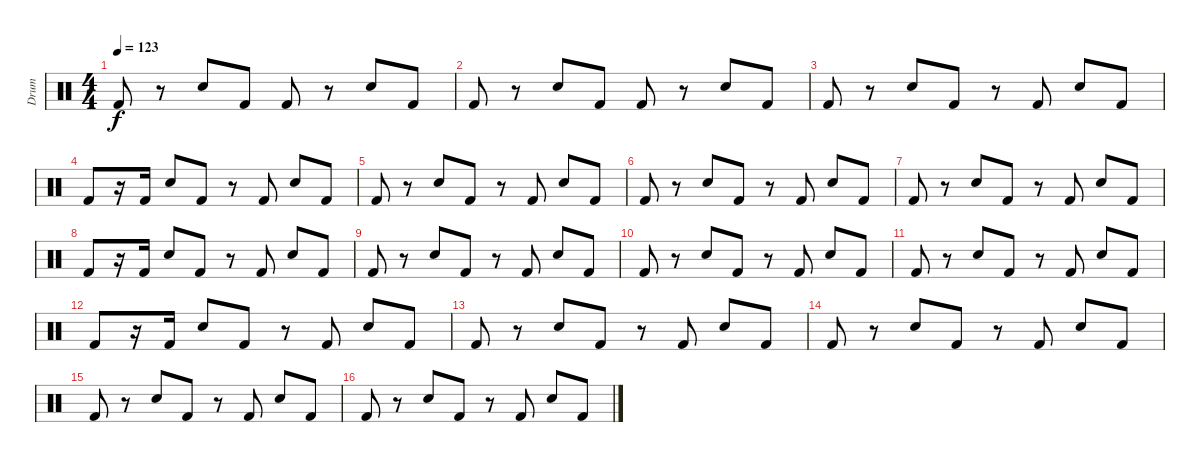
\track ("Drum" "Drum") {instrument percussion}
\staff {score}
\articulation defaults
\ts (4 4)
\tempo 123
\clef neutral
\ks c "Kick (hit) 2".8{dy f}
r.8 "Electric Snare (hit)".8 "Kick (hit) 2".8 "Kick (hit) 2".8 r.8 "Electric Snare (hit)".8 "Kick (hit) 2".8 |
"Kick (hit) 2".8 r.8 "Electric Snare (hit)".8 "Kick (hit) 2".8 "Kick (hit) 2".8 r.8 "Electric Snare (hit)".8 "Kick (hit) 2".8 |
"Kick (hit) 2".8 r.8 "Electric Snare (hit)".8 "Kick (hit) 2".8 r.8 "Kick (hit) 2".8 "Electric Snare (hit)".8 "Kick (hit) 2".8 |
"Kick (hit) 2".8 r.16 "Kick (hit) 2".16 "Electric Snare (hit)".8 "Kick (hit) 2".8 r.8 "Kick (hit) 2".8 "Electric Snare (hit)".8 "Kick (hit) 2".8 |
"Kick (hit) 2".8 r.8 "Electric Snare (hit)".8 "Kick (hit) 2".8 r.8 "Kick (hit) 2".8 "Electric Snare (hit)".8 "Kick (hit) 2".8 |
"Kick (hit) 2".8 r.8 "Electric Snare (hit)".8 "Kick (hit) 2".8 r.8 "Kick (hit) 2".8 "Electric Snare (hit)".8 "Kick (hit) 2".8 |
"Kick (hit) 2".8 r.8 "Electric Snare (hit)".8 "Kick (hit) 2".8 r.8 "Kick (hit) 2".8 "Electric Snare (hit)".8 "Kick (hit) 2".8 |
"Kick (hit) 2".8 r.16 "Kick (hit) 2".16 "Electric Snare (hit)".8 "Kick (hit) 2".8 r.8 "Kick (hit) 2".8 "Electric Snare (hit)".8 "Kick (hit) 2".8 |
"Kick (hit) 2".8 r.8 "Electric Snare (hit)".8 "Kick (hit) 2".8 r.8 "Kick (hit) 2".8 "Electric Snare (hit)".8 "Kick (hit) 2".8 |
"Kick (hit) 2".8 r.8 "Electric Snare (hit)".8 "Kick (hit) 2".8 r.8 "Kick (hit) 2".8 "Electric Snare (hit)".8 "Kick (hit) 2".8 |
"Kick (hit) 2".8 r.8 "Electric Snare (hit)".8 "Kick (hit) 2".8 r.8 "Kick (hit) 2".8 "Electric Snare (hit)".8 "Kick (hit) 2".8 |
"Kick (hit) 2".8 r.16 "Kick (hit) 2".16 "Electric Snare (hit)".8 "Kick (hit) 2".8 r.8 "Kick (hit) 2".8 "Electric Snare (hit)".8 "Kick (hit) 2".8 |
"Kick (hit) 2".8 r.8 "Electric Snare (hit)".8 "Kick (hit) 2".8 r.8 "Kick (hit) 2".8 "Electric Snare (hit)".8 "Kick (hit) 2".8 |
"Kick (hit) 2".8 r.8 "Electric Snare (hit)".8 "Kick (hit) 2".8 r.8 "Kick (hit) 2".8 "Electric Snare (hit)".8 "Kick (hit) 2".8 |
"Kick (hit) 2".8 r.8 "Electric Snare (hit)".8 "Kick (hit) 2".8 r.8 "Kick (hit) 2".8 "Electric Snare (hit)".8 "Kick (hit) 2".8 |
"Kick (hit) 2".8 r.8 "Electric Snare (hit)".8 "Kick (hit) 2".8 r.8 "Kick (hit) 2".8 "Electric Snare (hit)".8 "Kick (hit) 2".8
